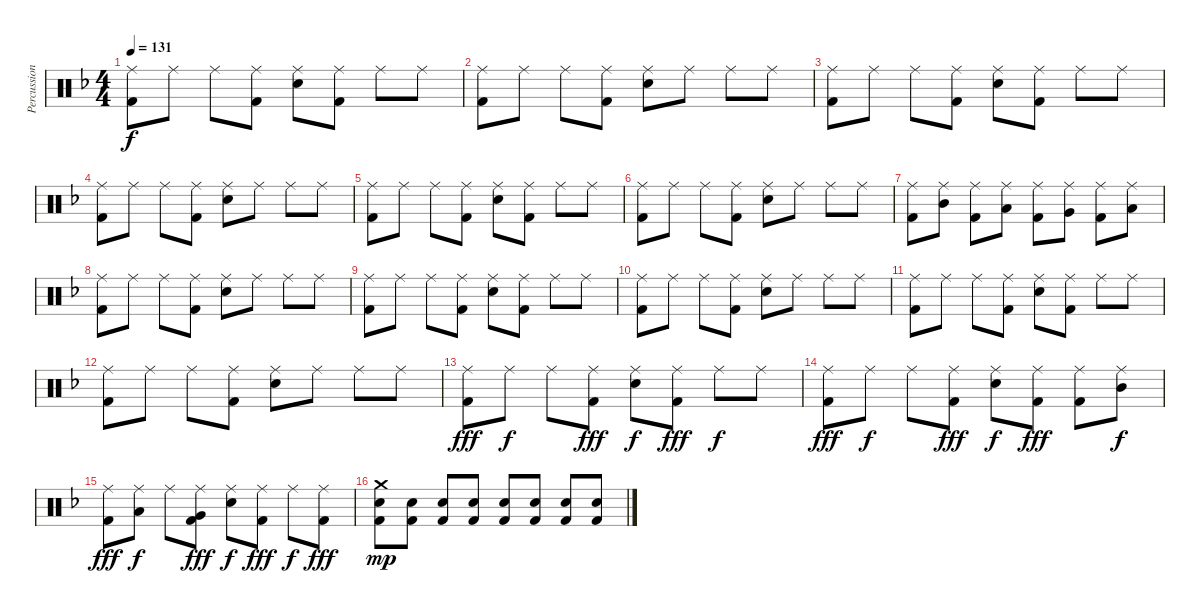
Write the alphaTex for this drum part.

\track ("Percussion" "Percussion") {instrument percussion}
\staff {score}
\articulation defaults
\ts (4 4)
\tempo 131
\clef neutral
\ks f
("Ride (middle)" "Kick (hit) 2").8{dy f} "Ride (middle)".8 "Ride (middle)".8 ("Ride (middle)" "Kick (hit) 2").8 ("Ride (middle)" "Electric Snare (hit)").8 ("Ride (middle)" "Kick (hit) 2").8 "Ride (middle)".8 "Ride (middle)".8 |
("Ride (middle)" "Kick (hit) 2").8 "Ride (middle)".8 "Ride (middle)".8 ("Ride (middle)" "Kick (hit) 2").8 ("Ride (middle)" "Electric Snare (hit)").8 "Ride (middle)".8 "Ride (middle)".8 "Ride (middle)".8 |
("Ride (middle)" "Kick (hit) 2").8 "Ride (middle)".8 "Ride (middle)".8 ("Ride (middle)" "Kick (hit) 2").8 ("Ride (middle)" "Electric Snare (hit)").8 ("Ride (middle)" "Kick (hit) 2").8 "Ride (middle)".8 "Ride (middle)".8 |
("Ride (middle)" "Kick (hit) 2").8 "Ride (middle)".8 "Ride (middle)".8 ("Ride (middle)" "Kick (hit) 2").8 ("Ride (middle)" "Electric Snare (hit)").8 "Ride (middle)".8 "Ride (middle)".8 "Ride (middle)".8 |
("Ride (middle)" "Kick (hit) 2").8 "Ride (middle)".8 "Ride (middle)".8 ("Ride (middle)" "Kick (hit) 2").8 ("Ride (middle)" "Electric Snare (hit)").8 ("Ride (middle)" "Kick (hit) 2").8 "Ride (middle)".8 "Ride (middle)".8 |
("Ride (middle)" "Kick (hit) 2").8 "Ride (middle)".8 "Ride (middle)".8 ("Ride (middle)" "Kick (hit) 2").8 ("Ride (middle)" "Electric Snare (hit)").8 "Ride (middle)".8 "Ride (middle)".8 "Ride (middle)".8 |
("Ride (middle)" "Kick (hit) 2").8 ("Ride (middle)" "Mid Tom (hit)").8 ("Ride (middle)" "Kick (hit) 2").8 ("Ride (middle)" "Low Tom (hit)").8 ("Ride (middle)" "Kick (hit) 2").8 ("Ride (middle)" "Very Low Tom (hit)").8 ("Ride (middle)" "Kick (hit) 2").8 ("Ride (middle)" "Low Floor Tom (hit)").8 |
("Ride (middle)" "Kick (hit) 2").8 "Ride (middle)".8 "Ride (middle)".8 ("Ride (middle)" "Kick (hit) 2").8 ("Ride (middle)" "Electric Snare (hit)").8 "Ride (middle)".8 "Ride (middle)".8 "Ride (middle)".8 |
("Ride (middle)" "Kick (hit) 2").8 "Ride (middle)".8 "Ride (middle)".8 ("Ride (middle)" "Kick (hit) 2").8 ("Ride (middle)" "Electric Snare (hit)").8 ("Ride (middle)" "Kick (hit) 2").8 "Ride (middle)".8 "Ride (middle)".8 |
("Ride (middle)" "Kick (hit) 2").8 "Ride (middle)".8 "Ride (middle)".8 ("Ride (middle)" "Kick (hit) 2").8 ("Ride (middle)" "Electric Snare (hit)").8 "Ride (middle)".8 "Ride (middle)".8 "Ride (middle)".8 |
("Ride (middle)" "Kick (hit) 2").8 "Ride (middle)".8 "Ride (middle)".8 ("Ride (middle)" "Kick (hit) 2").8 ("Ride (middle)" "Electric Snare (hit)").8 ("Ride (middle)" "Kick (hit) 2").8 "Ride (middle)".8 "Ride (middle)".8 |
("Ride (middle)" "Kick (hit) 2").8 "Ride (middle)".8 "Ride (middle)".8 ("Ride (middle)" "Kick (hit) 2").8 ("Ride (middle)" "Electric Snare (hit)").8 "Ride (middle)".8 "Ride (middle)".8 "Ride (middle)".8 |
("Ride (middle)" "Kick (hit) 2").8{dy fff} "Ride (middle)".8{dy f} "Ride (middle)".8 ("Ride (middle)" "Kick (hit) 2").8{dy fff} ("Ride (middle)" "Electric Snare (hit)").8{dy f} ("Ride (middle)" "Kick (hit) 2").8{dy fff} "Ride (middle)".8{dy f} "Ride (middle)".8 |
("Ride (middle)" "Kick (hit) 2").8{dy fff} "Ride (middle)".8{dy f} "Ride (middle)".8 ("Ride (middle)" "Kick (hit) 2").8{dy fff} ("Ride (middle)" "Electric Snare (hit)").8{dy f} ("Ride (middle)" "Kick (hit) 2").8{dy fff} ("Ride (middle)" "Kick (hit) 2").8 ("Ride (middle)" "Mid Tom (hit)").8{dy f} |
("Ride (middle)" "Kick (hit) 2").8{dy fff} ("Ride (middle)" "Low Tom (hit)").8{dy f} "Ride (middle)".8 ("Ride (middle)" "Very Low Tom (hit)" "Kick (hit) 2").8{dy fff} ("Ride (middle)" "Electric Snare (hit)").8{dy f} ("Ride (middle)" "Kick (hit) 2").8{dy fff} "Ride (middle)".8{dy f} ("Ride (middle)" "Kick (hit) 2").8{dy fff} |
("Crash medium (hit)" "Electric Snare (hit)" "Kick (hit) 2").8{dy mp} ("Electric Snare (hit)" "Kick (hit) 2").8 ("Electric Snare (hit)" "Kick (hit) 2").8 ("Electric Snare (hit)" "Kick (hit) 2").8 ("Electric Snare (hit)" "Kick (hit) 2").8 ("Electric Snare (hit)" "Kick (hit) 2").8 ("Electric Snare (hit)" "Kick (hit) 2").8 ("Electric Snare (hit)" "Kick (hit) 2").8
